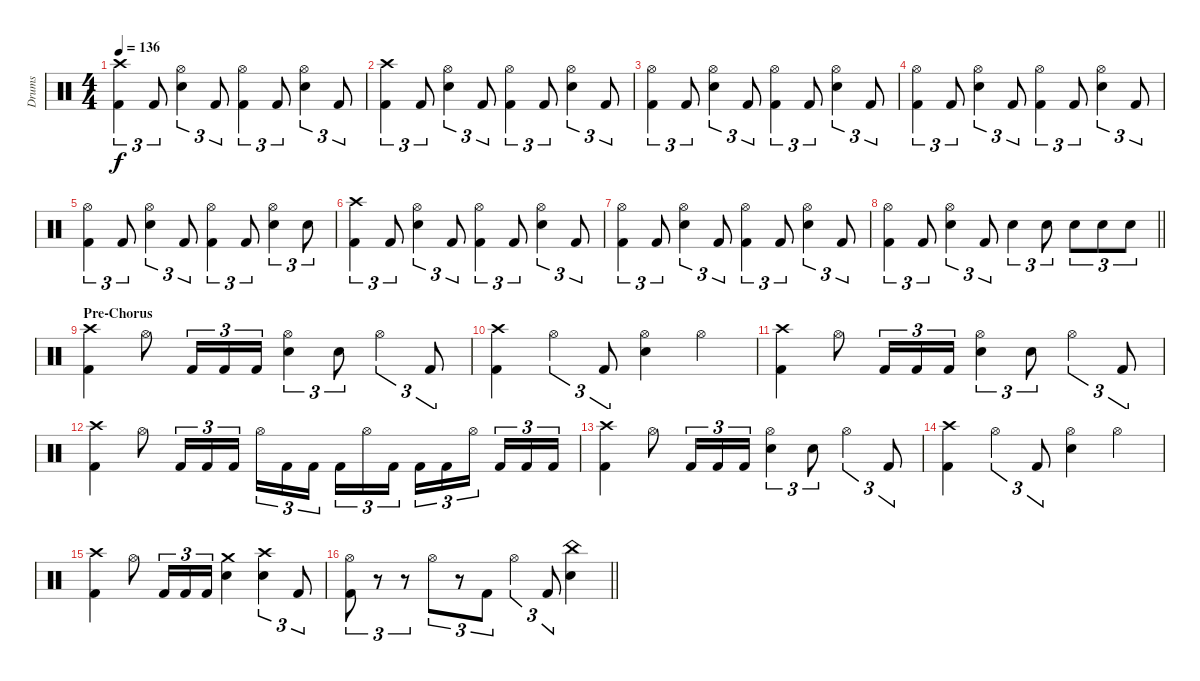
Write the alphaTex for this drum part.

\track ("Drums" "Drums") {instrument percussion}
\staff {score}
\articulation defaults
\ts (4 4)
\tempo 136
\clef neutral
\ks c
("Crash high (hit)" "Kick (hit) 2").4{tu (3 2) dy f} "Kick (hit) 2".8{tu (3 2)} ("Hi-Hat (open)" "Electric Snare (hit)").4{tu (3 2)} "Kick (hit) 2".8{tu (3 2)} ("Hi-Hat (open)" "Kick (hit) 2").4{tu (3 2)} "Kick (hit) 2".8{tu (3 2)} ("Hi-Hat (open)" "Electric Snare (hit)").4{tu (3 2)} "Kick (hit) 2".8{tu (3 2)} |
("Crash high (hit)" "Kick (hit) 2").4{tu (3 2)} "Kick (hit) 2".8{tu (3 2)} ("Hi-Hat (open)" "Electric Snare (hit)").4{tu (3 2)} "Kick (hit) 2".8{tu (3 2)} ("Hi-Hat (open)" "Kick (hit) 2").4{tu (3 2)} "Kick (hit) 2".8{tu (3 2)} ("Hi-Hat (open)" "Electric Snare (hit)").4{tu (3 2)} "Kick (hit) 2".8{tu (3 2)} |
("Hi-Hat (open)" "Kick (hit) 2").4{tu (3 2)} "Kick (hit) 2".8{tu (3 2)} ("Hi-Hat (open)" "Electric Snare (hit)").4{tu (3 2)} "Kick (hit) 2".8{tu (3 2)} ("Hi-Hat (open)" "Kick (hit) 2").4{tu (3 2)} "Kick (hit) 2".8{tu (3 2)} ("Hi-Hat (open)" "Electric Snare (hit)").4{tu (3 2)} "Kick (hit) 2".8{tu (3 2)} |
("Hi-Hat (open)" "Kick (hit) 2").4{tu (3 2)} "Kick (hit) 2".8{tu (3 2)} ("Hi-Hat (open)" "Electric Snare (hit)").4{tu (3 2)} "Kick (hit) 2".8{tu (3 2)} ("Hi-Hat (open)" "Kick (hit) 2").4{tu (3 2)} "Kick (hit) 2".8{tu (3 2)} ("Hi-Hat (open)" "Electric Snare (hit)").4{tu (3 2)} "Kick (hit) 2".8{tu (3 2)} |
("Hi-Hat (open)" "Kick (hit) 2").4{tu (3 2)} "Kick (hit) 2".8{tu (3 2)} ("Hi-Hat (open)" "Electric Snare (hit)").4{tu (3 2)} "Kick (hit) 2".8{tu (3 2)} ("Hi-Hat (open)" "Kick (hit) 2").4{tu (3 2)} "Kick (hit) 2".8{tu (3 2)} ("Hi-Hat (open)" "Electric Snare (hit)").4{tu (3 2)} "Electric Snare (hit)".8{tu (3 2)} |
("Crash high (hit)" "Kick (hit) 2").4{tu (3 2)} "Kick (hit) 2".8{tu (3 2)} ("Hi-Hat (open)" "Electric Snare (hit)").4{tu (3 2)} "Kick (hit) 2".8{tu (3 2)} ("Hi-Hat (open)" "Kick (hit) 2").4{tu (3 2)} "Kick (hit) 2".8{tu (3 2)} ("Hi-Hat (open)" "Electric Snare (hit)").4{tu (3 2)} "Kick (hit) 2".8{tu (3 2)} |
("Hi-Hat (open)" "Kick (hit) 2").4{tu (3 2)} "Kick (hit) 2".8{tu (3 2)} ("Hi-Hat (open)" "Electric Snare (hit)").4{tu (3 2)} "Kick (hit) 2".8{tu (3 2)} ("Hi-Hat (open)" "Kick (hit) 2").4{tu (3 2)} "Kick (hit) 2".8{tu (3 2)} ("Hi-Hat (open)" "Electric Snare (hit)").4{tu (3 2)} "Kick (hit) 2".8{tu (3 2)} |
\barLineRight lightlight
("Hi-Hat (open)" "Kick (hit) 2").4{tu (3 2)} "Kick (hit) 2".8{tu (3 2)} ("Hi-Hat (open)" "Electric Snare (hit)").4{tu (3 2)} "Kick (hit) 2".8{tu (3 2)} "Electric Snare (hit)".4{tu (3 2)} "Electric Snare (hit)".8{tu (3 2)} "Electric Snare (hit)".8{tu (3 2)} "Electric Snare (hit)".8{tu (3 2)} "Electric Snare (hit)".8{tu (3 2)} |
\section ("" "Pre-Chorus")
("Crash high (hit)" "Kick (hit) 2").4 "Hi-Hat (open)".8 "Kick (hit) 2".16{tu (3 2)} "Kick (hit) 2".16{tu (3 2)} "Kick (hit) 2".16{tu (3 2)} ("Hi-Hat (open)" "Electric Snare (hit)").4{tu (3 2)} "Electric Snare (hit)".8{tu (3 2)} "Hi-Hat (open)".4{tu (3 2)} "Kick (hit) 2".8{tu (3 2)} |
("Crash high (hit)" "Kick (hit) 2").4 "Hi-Hat (open)".4{tu (3 2)} "Kick (hit) 2".8{tu (3 2)} ("Hi-Hat (open)" "Electric Snare (hit)").4 "Hi-Hat (open)".4 |
("Crash high (hit)" "Kick (hit) 2").4 "Hi-Hat (open)".8 "Kick (hit) 2".16{tu (3 2)} "Kick (hit) 2".16{tu (3 2)} "Kick (hit) 2".16{tu (3 2)} ("Hi-Hat (open)" "Electric Snare (hit)").4{tu (3 2)} "Electric Snare (hit)".8{tu (3 2)} "Hi-Hat (open)".4{tu (3 2)} "Kick (hit) 2".8{tu (3 2)} |
("Crash high (hit)" "Kick (hit) 2").4 "Hi-Hat (open)".8 "Kick (hit) 2".16{tu (3 2)} "Kick (hit) 2".16{tu (3 2)} "Kick (hit) 2".16{tu (3 2)} "Hi-Hat (open)".16{tu (3 2)} "Kick (hit) 2".16{tu (3 2)} "Kick (hit) 2".16{tu (3 2) beam splitsecondary} "Kick (hit) 2".16{tu (3 2)} "Hi-Hat (open)".16{tu (3 2)} "Kick (hit) 2".16{tu (3 2)} "Kick (hit) 2".16{tu (3 2)} "Kick (hit) 2".16{tu (3 2)} "Hi-Hat (open)".16{tu (3 2) beam splitsecondary} "Kick (hit) 2".16{tu (3 2)} "Kick (hit) 2".16{tu (3 2)} "Kick (hit) 2".16{tu (3 2)} |
("Crash high (hit)" "Kick (hit) 2").4 "Hi-Hat (open)".8 "Kick (hit) 2".16{tu (3 2)} "Kick (hit) 2".16{tu (3 2)} "Kick (hit) 2".16{tu (3 2)} ("Hi-Hat (open)" "Electric Snare (hit)").4{tu (3 2)} "Electric Snare (hit)".8{tu (3 2)} "Hi-Hat (open)".4{tu (3 2)} "Kick (hit) 2".8{tu (3 2)} |
("Crash high (hit)" "Kick (hit) 2").4 "Hi-Hat (open)".4{tu (3 2)} "Kick (hit) 2".8{tu (3 2)} ("Hi-Hat (open)" "Electric Snare (hit)").4 "Hi-Hat (open)".4 |
("Crash high (hit)" "Kick (hit) 2").4 "Hi-Hat (open)".8 "Kick (hit) 2".16{tu (3 2)} "Kick (hit) 2".16{tu (3 2)} "Kick (hit) 2".16{tu (3 2)} ("Crash medium (hit)" "Electric Snare (hit)").4 ("Crash high (hit)" "Electric Snare (hit)").4{tu (3 2)} "Kick (hit) 2".8{tu (3 2)} |
\barLineRight lightlight
("Hi-Hat (open)" "Kick (hit) 2").8{tu (3 2)} r.8{tu (3 2)} r.8{tu (3 2)} "Hi-Hat (open)".8{tu (3 2)} r.8{tu (3 2)} "Kick (hit) 2".8{tu (3 2)} "Hi-Hat (open)".4{tu (3 2)} "Kick (hit) 2".8{tu (3 2)} ("China (hit)" "Electric Snare (hit)").4
